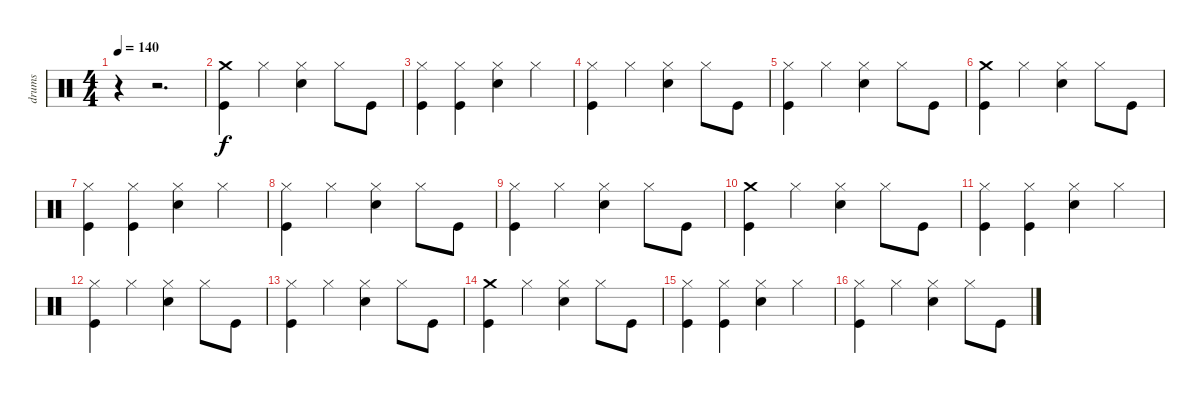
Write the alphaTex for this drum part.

\track ("drums" "drums") {instrument percussion}
\staff {score}
\articulation defaults
\ts (4 4)
\tempo 140
\clef neutral
\ks c
r.4{dy f} r.2{d} |
("Kick (hit)" "Crash medium (hit)").4 "Hi-Hat (closed)".4 ("Snare (hit) 2" "Hi-Hat (closed)").4 "Hi-Hat (closed)".8 "Kick (hit)".8 |
("Kick (hit)" "Hi-Hat (closed)").4 ("Kick (hit)" "Hi-Hat (closed)").4 ("Snare (hit) 2" "Hi-Hat (closed)").4 "Hi-Hat (closed)".4 |
("Hi-Hat (closed)" "Kick (hit)").4 "Hi-Hat (closed)".4 ("Hi-Hat (closed)" "Snare (hit) 2").4 "Hi-Hat (closed)".8 "Kick (hit)".8 |
("Hi-Hat (closed)" "Kick (hit)").4 "Hi-Hat (closed)".4 ("Hi-Hat (closed)" "Snare (hit) 2").4 "Hi-Hat (closed)".8 "Kick (hit)".8 |
("Kick (hit)" "Crash medium (hit)").4 "Hi-Hat (closed)".4 ("Snare (hit) 2" "Hi-Hat (closed)").4 "Hi-Hat (closed)".8 "Kick (hit)".8 |
("Kick (hit)" "Hi-Hat (closed)").4 ("Kick (hit)" "Hi-Hat (closed)").4 ("Snare (hit) 2" "Hi-Hat (closed)").4 "Hi-Hat (closed)".4 |
("Hi-Hat (closed)" "Kick (hit)").4 "Hi-Hat (closed)".4 ("Hi-Hat (closed)" "Snare (hit) 2").4 "Hi-Hat (closed)".8 "Kick (hit)".8 |
("Hi-Hat (closed)" "Kick (hit)").4 "Hi-Hat (closed)".4 ("Hi-Hat (closed)" "Snare (hit) 2").4 "Hi-Hat (closed)".8 "Kick (hit)".8 |
("Kick (hit)" "Crash medium (hit)").4 "Hi-Hat (closed)".4 ("Snare (hit) 2" "Hi-Hat (closed)").4 "Hi-Hat (closed)".8 "Kick (hit)".8 |
("Kick (hit)" "Hi-Hat (closed)").4 ("Kick (hit)" "Hi-Hat (closed)").4 ("Snare (hit) 2" "Hi-Hat (closed)").4 "Hi-Hat (closed)".4 |
("Hi-Hat (closed)" "Kick (hit)").4 "Hi-Hat (closed)".4 ("Hi-Hat (closed)" "Snare (hit) 2").4 "Hi-Hat (closed)".8 "Kick (hit)".8 |
("Hi-Hat (closed)" "Kick (hit)").4 "Hi-Hat (closed)".4 ("Hi-Hat (closed)" "Snare (hit) 2").4 "Hi-Hat (closed)".8 "Kick (hit)".8 |
("Kick (hit)" "Crash medium (hit)").4 "Hi-Hat (closed)".4 ("Snare (hit) 2" "Hi-Hat (closed)").4 "Hi-Hat (closed)".8 "Kick (hit)".8 |
("Kick (hit)" "Hi-Hat (closed)").4 ("Kick (hit)" "Hi-Hat (closed)").4 ("Snare (hit) 2" "Hi-Hat (closed)").4 "Hi-Hat (closed)".4 |
("Hi-Hat (closed)" "Kick (hit)").4 "Hi-Hat (closed)".4 ("Hi-Hat (closed)" "Snare (hit) 2").4 "Hi-Hat (closed)".8 "Kick (hit)".8
